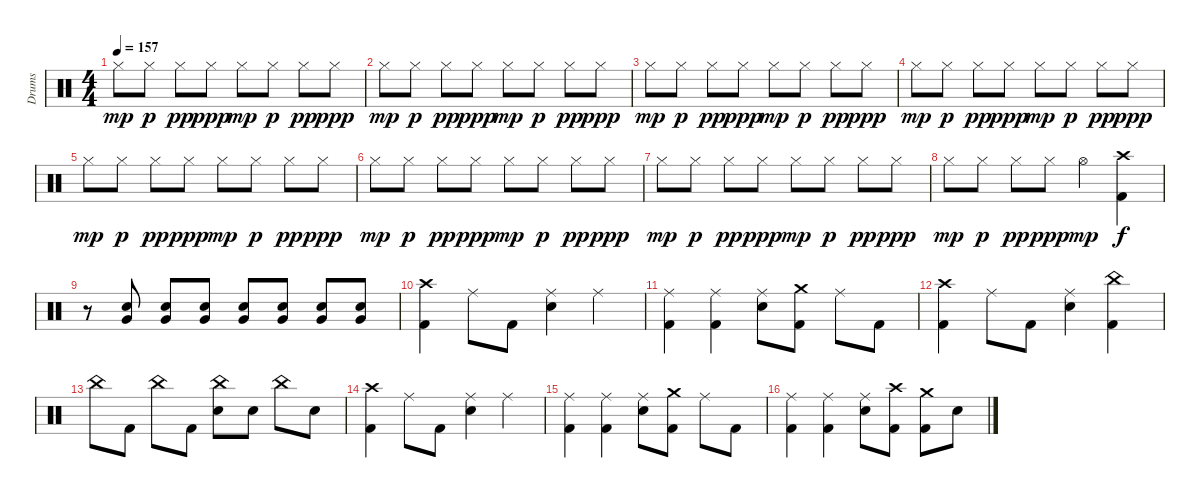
\track ("Drums" "Drums") {instrument percussion}
\staff {score}
\articulation defaults
\ts (4 4)
\tempo 157
\clef neutral
\ks c "Hi-Hat (closed)".8{dy mp} "Hi-Hat (closed)".8{dy p} "Hi-Hat (closed)".8{dy pp} "Hi-Hat (closed)".8{dy ppp} "Hi-Hat (closed)".8{dy mp} "Hi-Hat (closed)".8{dy p} "Hi-Hat (closed)".8{dy pp} "Hi-Hat (closed)".8{dy ppp}
|
"Hi-Hat (closed)".8{dy mp} "Hi-Hat (closed)".8{dy p} "Hi-Hat (closed)".8{dy pp} "Hi-Hat (closed)".8{dy ppp} "Hi-Hat (closed)".8{dy mp} "Hi-Hat (closed)".8{dy p} "Hi-Hat (closed)".8{dy pp} "Hi-Hat (closed)".8{dy ppp} |
"Hi-Hat (closed)".8{dy mp} "Hi-Hat (closed)".8{dy p} "Hi-Hat (closed)".8{dy pp} "Hi-Hat (closed)".8{dy ppp} "Hi-Hat (closed)".8{dy mp} "Hi-Hat (closed)".8{dy p} "Hi-Hat (closed)".8{dy pp} "Hi-Hat (closed)".8{dy ppp} |
"Hi-Hat (closed)".8{dy mp} "Hi-Hat (closed)".8{dy p} "Hi-Hat (closed)".8{dy pp} "Hi-Hat (closed)".8{dy ppp} "Hi-Hat (closed)".8{dy mp} "Hi-Hat (closed)".8{dy p} "Hi-Hat (closed)".8{dy pp} "Hi-Hat (closed)".8{dy ppp} |
"Hi-Hat (closed)".8{dy mp} "Hi-Hat (closed)".8{dy p} "Hi-Hat (closed)".8{dy pp} "Hi-Hat (closed)".8{dy ppp} "Hi-Hat (closed)".8{dy mp} "Hi-Hat (closed)".8{dy p} "Hi-Hat (closed)".8{dy pp} "Hi-Hat (closed)".8{dy ppp} |
"Hi-Hat (closed)".8{dy mp} "Hi-Hat (closed)".8{dy p} "Hi-Hat (closed)".8{dy pp} "Hi-Hat (closed)".8{dy ppp} "Hi-Hat (closed)".8{dy mp} "Hi-Hat (closed)".8{dy p} "Hi-Hat (closed)".8{dy pp} "Hi-Hat (closed)".8{dy ppp} |
"Hi-Hat (closed)".8{dy mp} "Hi-Hat (closed)".8{dy p} "Hi-Hat (closed)".8{dy pp} "Hi-Hat (closed)".8{dy ppp} "Hi-Hat (closed)".8{dy mp} "Hi-Hat (closed)".8{dy p} "Hi-Hat (closed)".8{dy pp} "Hi-Hat (closed)".8{dy ppp} |
"Hi-Hat (closed)".8{dy mp} "Hi-Hat (closed)".8{dy p} "Hi-Hat (closed)".8{dy pp} "Hi-Hat (closed)".8{dy ppp} "Hi-Hat (open)".4{dy mp} ("Crash high (hit)" "Kick (hit) 2").4{dy f volume 15} |
r.8 ("Electric Snare (hit)" "Very Low Tom (hit)").8 ("Electric Snare (hit)" "Very Low Tom (hit)").8 ("Electric Snare (hit)" "Very Low Tom (hit)").8 ("Electric Snare (hit)" "Very Low Tom (hit)").8 ("Electric Snare (hit)" "Very Low Tom (hit)").8 ("Electric Snare (hit)" "Very Low Tom (hit)").8 ("Electric Snare (hit)" "Very Low Tom (hit)").8 |
("Crash high (hit)" "Kick (hit) 2").4 "Ride (middle)".8 "Kick (hit) 2".8 ("Ride (middle)" "Electric Snare (hit)").4 "Ride (middle)".4 |
("Ride (middle)" "Kick (hit) 2").4 ("Ride (middle)" "Kick (hit) 2").4 ("Ride (middle)" "Electric Snare (hit)").8 ("Crash medium (hit)" "Kick (hit) 2").8 "Ride (middle)".8 "Kick (hit) 2".8 |
("Crash high (hit)" "Kick (hit) 2").4 "Ride (middle)".8 "Kick (hit) 2".8 ("Ride (middle)" "Electric Snare (hit)").4 ("China (hit)" "Kick (hit) 2").4 |
"China (hit)".8 "Kick (hit) 2".8 "China (hit)".8 "Kick (hit) 2".8 ("China (hit)" "Electric Snare (hit)").8 "Electric Snare (hit)".8 "China (hit)".8 "Electric Snare (hit)".8 |
("Crash high (hit)" "Kick (hit) 2").4 "Ride (middle)".8 "Kick (hit) 2".8 ("Ride (middle)" "Electric Snare (hit)").4 "Ride (middle)".4 |
("Ride (middle)" "Kick (hit) 2").4 ("Ride (middle)" "Kick (hit) 2").4 ("Ride (middle)" "Electric Snare (hit)").8 ("Crash medium (hit)" "Kick (hit) 2").8 "Ride (middle)".8 "Kick (hit) 2".8 |
("Ride (middle)" "Kick (hit) 2").4 ("Ride (middle)" "Kick (hit) 2").4 ("Ride (middle)" "Electric Snare (hit)").8 ("Crash high (hit)" "Kick (hit) 2").8 ("Crash medium (hit)" "Kick (hit) 2").8 "Electric Snare (hit)".8
